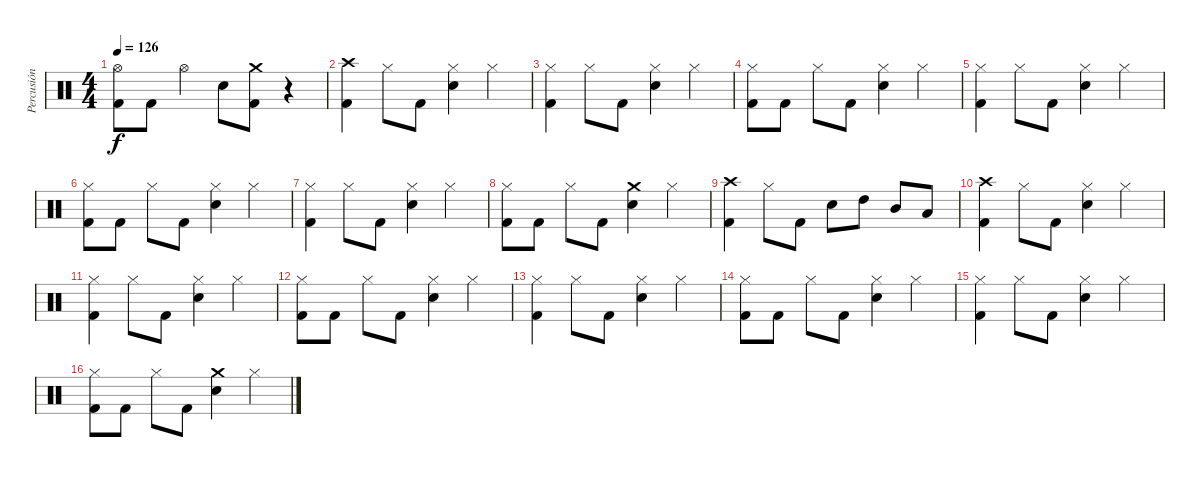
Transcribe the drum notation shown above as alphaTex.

\track ("Percusión" "Percusión") {instrument percussion}
\staff {score}
\articulation defaults
\ts (4 4)
\tempo 126
\clef neutral
\ks c
("Hi-Hat (open)" "Kick (hit) 2").8{dy f} "Kick (hit) 2".8 "Hi-Hat (open)".4 "Electric Snare (hit)".8 ("Crash medium (hit)" "Kick (hit) 2").8 r.4 |
("Crash high (hit)" "Kick (hit) 2").4 "Hi-Hat (closed)".8 "Kick (hit) 2".8 ("Hi-Hat (closed)" "Electric Snare (hit)").4 "Hi-Hat (closed)".4 |
("Hi-Hat (closed)" "Kick (hit) 2").4 "Hi-Hat (closed)".8 "Kick (hit) 2".8 ("Hi-Hat (closed)" "Electric Snare (hit)").4 "Hi-Hat (closed)".4 |
("Hi-Hat (closed)" "Kick (hit) 2").8 "Kick (hit) 2".8 "Hi-Hat (closed)".8 "Kick (hit) 2".8 ("Hi-Hat (closed)" "Electric Snare (hit)").4 "Hi-Hat (closed)".4 |
("Hi-Hat (closed)" "Kick (hit) 2").4 "Hi-Hat (closed)".8 "Kick (hit) 2".8 ("Hi-Hat (closed)" "Electric Snare (hit)").4 "Hi-Hat (closed)".4 |
("Hi-Hat (closed)" "Kick (hit) 2").8 "Kick (hit) 2".8 "Hi-Hat (closed)".8 "Kick (hit) 2".8 ("Hi-Hat (closed)" "Electric Snare (hit)").4 "Hi-Hat (closed)".4 |
("Hi-Hat (closed)" "Kick (hit) 2").4 "Hi-Hat (closed)".8 "Kick (hit) 2".8 ("Hi-Hat (closed)" "Electric Snare (hit)").4 "Hi-Hat (closed)".4 |
("Hi-Hat (closed)" "Kick (hit) 2").8 "Kick (hit) 2".8 "Hi-Hat (closed)".8 "Kick (hit) 2".8 ("Crash medium (hit)" "Electric Snare (hit)").4 "Hi-Hat (closed)".4 |
("Crash high (hit)" "Kick (hit) 2").4 "Hi-Hat (closed)".8 "Kick (hit) 2".8 "Electric Snare (hit)".8 "High Tom (hit)".8 "Mid Tom (hit)".8 "Low Tom (hit)".8 |
("Crash high (hit)" "Kick (hit) 2").4 "Hi-Hat (closed)".8 "Kick (hit) 2".8 ("Hi-Hat (closed)" "Electric Snare (hit)").4 "Hi-Hat (closed)".4 |
("Hi-Hat (closed)" "Kick (hit) 2").4 "Hi-Hat (closed)".8 "Kick (hit) 2".8 ("Hi-Hat (closed)" "Electric Snare (hit)").4 "Hi-Hat (closed)".4 |
("Hi-Hat (closed)" "Kick (hit) 2").8 "Kick (hit) 2".8 "Hi-Hat (closed)".8 "Kick (hit) 2".8 ("Hi-Hat (closed)" "Electric Snare (hit)").4 "Hi-Hat (closed)".4 |
("Hi-Hat (closed)" "Kick (hit) 2").4 "Hi-Hat (closed)".8 "Kick (hit) 2".8 ("Hi-Hat (closed)" "Electric Snare (hit)").4 "Hi-Hat (closed)".4 |
("Hi-Hat (closed)" "Kick (hit) 2").8 "Kick (hit) 2".8 "Hi-Hat (closed)".8 "Kick (hit) 2".8 ("Hi-Hat (closed)" "Electric Snare (hit)").4 "Hi-Hat (closed)".4 |
("Hi-Hat (closed)" "Kick (hit) 2").4 "Hi-Hat (closed)".8 "Kick (hit) 2".8 ("Hi-Hat (closed)" "Electric Snare (hit)").4 "Hi-Hat (closed)".4 |
("Hi-Hat (closed)" "Kick (hit) 2").8 "Kick (hit) 2".8 "Hi-Hat (closed)".8 "Kick (hit) 2".8 ("Crash medium (hit)" "Electric Snare (hit)").4 "Hi-Hat (closed)".4
